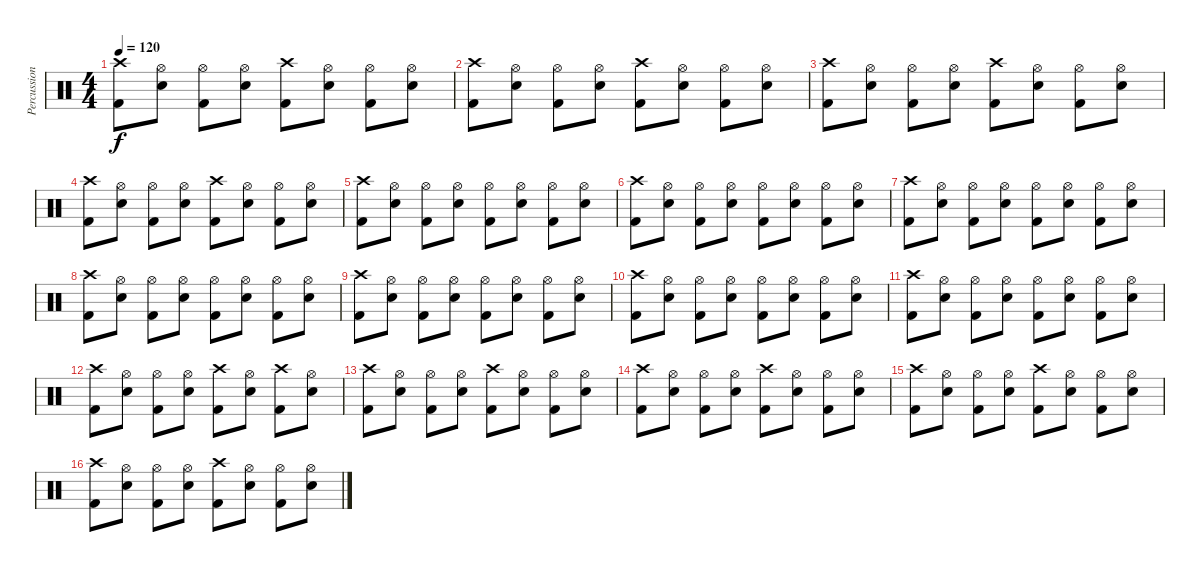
\track ("Percussion" "Percussion") {instrument percussion}
\staff {score}
\articulation defaults
\ts (4 4)
\tempo 120
\clef neutral
\ks c
("Crash high (hit)" "Kick (hit) 2").8{dy f} ("Hi-Hat (open)" "Snare (hit) 2").8 ("Hi-Hat (open)" "Kick (hit) 2").8 ("Hi-Hat (open)" "Snare (hit) 2").8 ("Crash high (hit)" "Kick (hit) 2").8 ("Hi-Hat (open)" "Snare (hit) 2").8 ("Hi-Hat (open)" "Kick (hit) 2").8 ("Hi-Hat (open)" "Snare (hit) 2").8 |
("Crash high (hit)" "Kick (hit) 2").8 ("Hi-Hat (open)" "Snare (hit) 2").8 ("Hi-Hat (open)" "Kick (hit) 2").8 ("Hi-Hat (open)" "Snare (hit) 2").8 ("Crash high (hit)" "Kick (hit) 2").8 ("Hi-Hat (open)" "Snare (hit) 2").8 ("Hi-Hat (open)" "Kick (hit) 2").8 ("Hi-Hat (open)" "Snare (hit) 2").8 |
("Crash high (hit)" "Kick (hit) 2").8 ("Hi-Hat (open)" "Snare (hit) 2").8 ("Hi-Hat (open)" "Kick (hit) 2").8 ("Hi-Hat (open)" "Snare (hit) 2").8 ("Crash high (hit)" "Kick (hit) 2").8 ("Hi-Hat (open)" "Snare (hit) 2").8 ("Hi-Hat (open)" "Kick (hit) 2").8 ("Hi-Hat (open)" "Snare (hit) 2").8 |
("Crash high (hit)" "Kick (hit) 2").8 ("Hi-Hat (open)" "Snare (hit) 2").8 ("Hi-Hat (open)" "Kick (hit) 2").8 ("Hi-Hat (open)" "Snare (hit) 2").8 ("Crash high (hit)" "Kick (hit) 2").8 ("Hi-Hat (open)" "Snare (hit) 2").8 ("Hi-Hat (open)" "Kick (hit) 2").8 ("Hi-Hat (open)" "Snare (hit) 2").8 |
("Crash high (hit)" "Kick (hit) 2").8 ("Hi-Hat (open)" "Snare (hit) 2").8 ("Hi-Hat (open)" "Kick (hit) 2").8 ("Hi-Hat (open)" "Snare (hit) 2").8 ("Hi-Hat (open)" "Kick (hit) 2").8 ("Hi-Hat (open)" "Snare (hit) 2").8 ("Hi-Hat (open)" "Kick (hit) 2").8 ("Hi-Hat (open)" "Snare (hit) 2").8 |
("Crash high (hit)" "Kick (hit) 2").8 ("Hi-Hat (open)" "Snare (hit) 2").8 ("Hi-Hat (open)" "Kick (hit) 2").8 ("Hi-Hat (open)" "Snare (hit) 2").8 ("Hi-Hat (open)" "Kick (hit) 2").8 ("Hi-Hat (open)" "Snare (hit) 2").8 ("Hi-Hat (open)" "Kick (hit) 2").8 ("Hi-Hat (open)" "Snare (hit) 2").8 |
("Crash high (hit)" "Kick (hit) 2").8 ("Hi-Hat (open)" "Snare (hit) 2").8 ("Hi-Hat (open)" "Kick (hit) 2").8 ("Hi-Hat (open)" "Snare (hit) 2").8 ("Hi-Hat (open)" "Kick (hit) 2").8 ("Hi-Hat (open)" "Snare (hit) 2").8 ("Hi-Hat (open)" "Kick (hit) 2").8 ("Hi-Hat (open)" "Snare (hit) 2").8 |
("Crash high (hit)" "Kick (hit) 2").8 ("Hi-Hat (open)" "Snare (hit) 2").8 ("Hi-Hat (open)" "Kick (hit) 2").8 ("Hi-Hat (open)" "Snare (hit) 2").8 ("Hi-Hat (open)" "Kick (hit) 2").8 ("Hi-Hat (open)" "Snare (hit) 2").8 ("Hi-Hat (open)" "Kick (hit) 2").8 ("Hi-Hat (open)" "Snare (hit) 2").8 |
("Crash high (hit)" "Kick (hit) 2").8 ("Hi-Hat (open)" "Snare (hit) 2").8 ("Hi-Hat (open)" "Kick (hit) 2").8 ("Hi-Hat (open)" "Snare (hit) 2").8 ("Hi-Hat (open)" "Kick (hit) 2").8 ("Hi-Hat (open)" "Snare (hit) 2").8 ("Hi-Hat (open)" "Kick (hit) 2").8 ("Hi-Hat (open)" "Snare (hit) 2").8 |
("Crash high (hit)" "Kick (hit) 2").8 ("Hi-Hat (open)" "Snare (hit) 2").8 ("Hi-Hat (open)" "Kick (hit) 2").8 ("Hi-Hat (open)" "Snare (hit) 2").8 ("Hi-Hat (open)" "Kick (hit) 2").8 ("Hi-Hat (open)" "Snare (hit) 2").8 ("Hi-Hat (open)" "Kick (hit) 2").8 ("Hi-Hat (open)" "Snare (hit) 2").8 |
("Crash high (hit)" "Kick (hit) 2").8 ("Hi-Hat (open)" "Snare (hit) 2").8 ("Hi-Hat (open)" "Kick (hit) 2").8 ("Hi-Hat (open)" "Snare (hit) 2").8 ("Hi-Hat (open)" "Kick (hit) 2").8 ("Hi-Hat (open)" "Snare (hit) 2").8 ("Hi-Hat (open)" "Kick (hit) 2").8 ("Hi-Hat (open)" "Snare (hit) 2").8 |
("Crash high (hit)" "Kick (hit) 2").8 ("Hi-Hat (open)" "Snare (hit) 2").8 ("Hi-Hat (open)" "Kick (hit) 2").8 ("Hi-Hat (open)" "Snare (hit) 2").8 ("Crash high (hit)" "Kick (hit) 2").8 ("Hi-Hat (open)" "Snare (hit) 2").8 ("Crash high (hit)" "Kick (hit) 2").8 ("Hi-Hat (open)" "Snare (hit) 2").8 |
("Crash high (hit)" "Kick (hit) 2").8 ("Hi-Hat (open)" "Snare (hit) 2").8 ("Hi-Hat (open)" "Kick (hit) 2").8 ("Hi-Hat (open)" "Snare (hit) 2").8 ("Crash high (hit)" "Kick (hit) 2").8 ("Hi-Hat (open)" "Snare (hit) 2").8 ("Hi-Hat (open)" "Kick (hit) 2").8 ("Hi-Hat (open)" "Snare (hit) 2").8 |
("Crash high (hit)" "Kick (hit) 2").8 ("Hi-Hat (open)" "Snare (hit) 2").8 ("Hi-Hat (open)" "Kick (hit) 2").8 ("Hi-Hat (open)" "Snare (hit) 2").8 ("Crash high (hit)" "Kick (hit) 2").8 ("Hi-Hat (open)" "Snare (hit) 2").8 ("Hi-Hat (open)" "Kick (hit) 2").8 ("Hi-Hat (open)" "Snare (hit) 2").8 |
("Crash high (hit)" "Kick (hit) 2").8 ("Hi-Hat (open)" "Snare (hit) 2").8 ("Hi-Hat (open)" "Kick (hit) 2").8 ("Hi-Hat (open)" "Snare (hit) 2").8 ("Crash high (hit)" "Kick (hit) 2").8 ("Hi-Hat (open)" "Snare (hit) 2").8 ("Hi-Hat (open)" "Kick (hit) 2").8 ("Hi-Hat (open)" "Snare (hit) 2").8 |
("Crash high (hit)" "Kick (hit) 2").8 ("Hi-Hat (open)" "Snare (hit) 2").8 ("Hi-Hat (open)" "Kick (hit) 2").8 ("Hi-Hat (open)" "Snare (hit) 2").8 ("Crash high (hit)" "Kick (hit) 2").8 ("Hi-Hat (open)" "Snare (hit) 2").8 ("Hi-Hat (open)" "Kick (hit) 2").8 ("Hi-Hat (open)" "Snare (hit) 2").8
